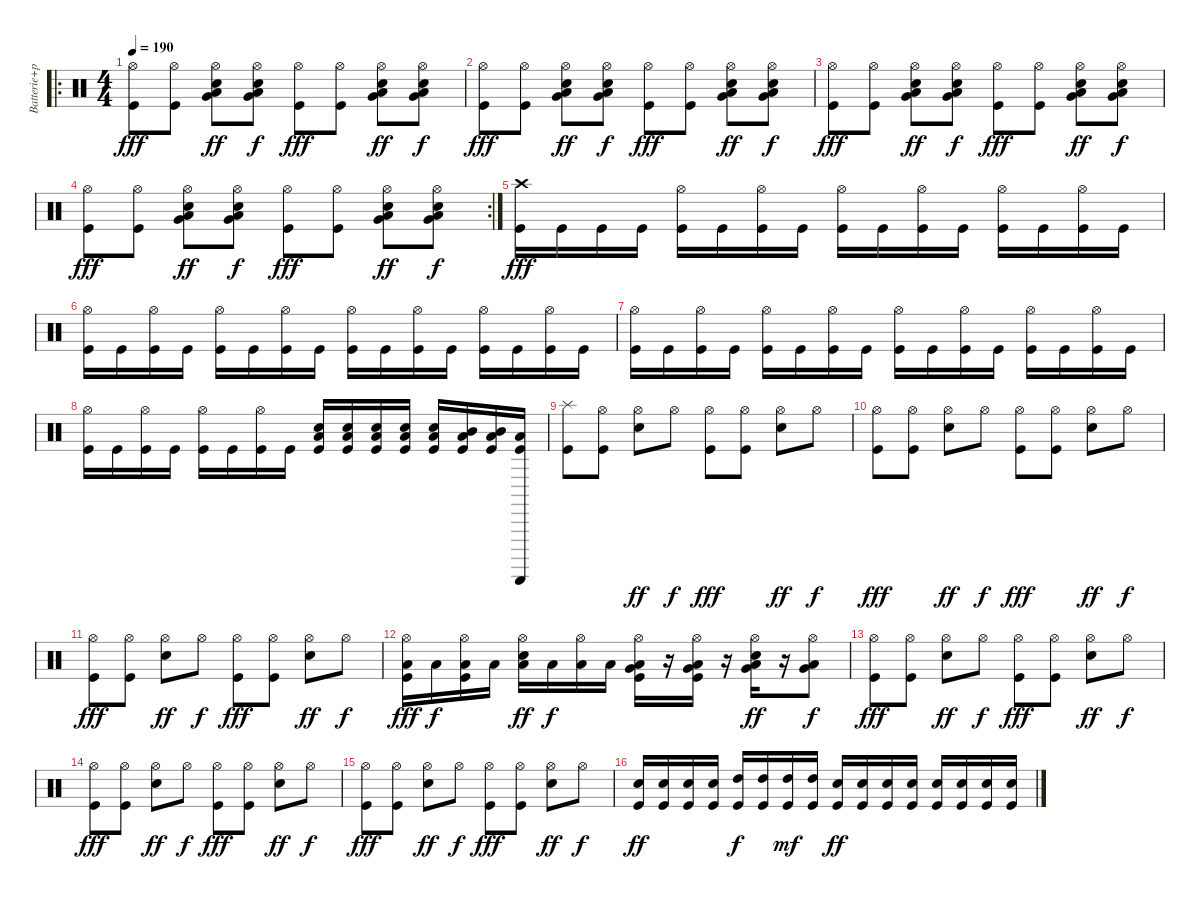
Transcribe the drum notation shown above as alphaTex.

\track ("Batterie+percussions" "Batterie+p") {instrument percussion}
\staff {score}
\articulation defaults
\ro
\ts (4 4)
\tempo 190
\clef neutral
\ks c
("Hi-Hat (open)" "Kick (hit)").8{dy fff} ("Hi-Hat (open)" "Kick (hit)").8 ("Hi-Hat (open)" "Electric Snare (hit)" "Low Floor Tom (hit)" "Very Low Tom (hit)").8{dy ff} ("Hi-Hat (open)" "Electric Snare (hit)" "Low Floor Tom (hit)" "Very Low Tom (hit)").8{dy f} ("Hi-Hat (open)" "Kick (hit)").8{dy fff} ("Hi-Hat (open)" "Kick (hit)").8 ("Hi-Hat (open)" "Electric Snare (hit)" "Low Floor Tom (hit)" "Very Low Tom (hit)").8{dy ff} ("Hi-Hat (open)" "Electric Snare (hit)" "Low Floor Tom (hit)" "Very Low Tom (hit)").8{dy f} |
("Hi-Hat (open)" "Kick (hit)").8{dy fff} ("Hi-Hat (open)" "Kick (hit)").8 ("Hi-Hat (open)" "Electric Snare (hit)" "Low Floor Tom (hit)" "Very Low Tom (hit)").8{dy ff} ("Hi-Hat (open)" "Electric Snare (hit)" "Low Floor Tom (hit)" "Very Low Tom (hit)").8{dy f} ("Hi-Hat (open)" "Kick (hit)").8{dy fff} ("Hi-Hat (open)" "Kick (hit)").8 ("Hi-Hat (open)" "Electric Snare (hit)" "Low Floor Tom (hit)" "Very Low Tom (hit)").8{dy ff} ("Hi-Hat (open)" "Electric Snare (hit)" "Low Floor Tom (hit)" "Very Low Tom (hit)").8{dy f} |
("Hi-Hat (open)" "Kick (hit)").8{dy fff} ("Hi-Hat (open)" "Kick (hit)").8 ("Hi-Hat (open)" "Electric Snare (hit)" "Low Floor Tom (hit)" "Very Low Tom (hit)").8{dy ff} ("Hi-Hat (open)" "Electric Snare (hit)" "Low Floor Tom (hit)" "Very Low Tom (hit)").8{dy f} ("Hi-Hat (open)" "Kick (hit)").8{dy fff} ("Hi-Hat (open)" "Kick (hit)").8 ("Hi-Hat (open)" "Electric Snare (hit)" "Low Floor Tom (hit)" "Very Low Tom (hit)").8{dy ff} ("Hi-Hat (open)" "Electric Snare (hit)" "Low Floor Tom (hit)" "Very Low Tom (hit)").8{dy f} |
\rc 2
("Hi-Hat (open)" "Kick (hit)").8{dy fff} ("Hi-Hat (open)" "Kick (hit)").8 ("Hi-Hat (open)" "Electric Snare (hit)" "Low Floor Tom (hit)" "Very Low Tom (hit)").8{dy ff} ("Hi-Hat (open)" "Electric Snare (hit)" "Low Floor Tom (hit)" "Very Low Tom (hit)").8{dy f} ("Hi-Hat (open)" "Kick (hit)").8{dy fff} ("Hi-Hat (open)" "Kick (hit)").8 ("Hi-Hat (open)" "Electric Snare (hit)" "Low Floor Tom (hit)" "Very Low Tom (hit)").8{dy ff} ("Hi-Hat (open)" "Electric Snare (hit)" "Low Floor Tom (hit)" "Very Low Tom (hit)").8{dy f} |
("Kick (hit)" "Crash high (hit)").16{dy fff} "Kick (hit)".16 "Kick (hit)".16 "Kick (hit)".16 ("Kick (hit)" "Hi-Hat (open)").16 "Kick (hit)".16 ("Kick (hit)" "Hi-Hat (open)").16 "Kick (hit)".16 ("Kick (hit)" "Hi-Hat (open)").16 "Kick (hit)".16 ("Kick (hit)" "Hi-Hat (open)").16 "Kick (hit)".16 ("Kick (hit)" "Hi-Hat (open)").16 "Kick (hit)".16 ("Kick (hit)" "Hi-Hat (open)").16 "Kick (hit)".16 |
("Kick (hit)" "Hi-Hat (open)").16 "Kick (hit)".16 ("Kick (hit)" "Hi-Hat (open)").16 "Kick (hit)".16 ("Kick (hit)" "Hi-Hat (open)").16 "Kick (hit)".16 ("Kick (hit)" "Hi-Hat (open)").16 "Kick (hit)".16 ("Kick (hit)" "Hi-Hat (open)").16 "Kick (hit)".16 ("Kick (hit)" "Hi-Hat (open)").16 "Kick (hit)".16 ("Kick (hit)" "Hi-Hat (open)").16 "Kick (hit)".16 ("Kick (hit)" "Hi-Hat (open)").16 "Kick (hit)".16 |
("Kick (hit)" "Hi-Hat (open)").16 "Kick (hit)".16 ("Kick (hit)" "Hi-Hat (open)").16 "Kick (hit)".16 ("Kick (hit)" "Hi-Hat (open)").16 "Kick (hit)".16 ("Kick (hit)" "Hi-Hat (open)").16 "Kick (hit)".16 ("Kick (hit)" "Hi-Hat (open)").16 "Kick (hit)".16 ("Kick (hit)" "Hi-Hat (open)").16 "Kick (hit)".16 ("Kick (hit)" "Hi-Hat (open)").16 "Kick (hit)".16 ("Kick (hit)" "Hi-Hat (open)").16 "Kick (hit)".16 |
("Kick (hit)" "Hi-Hat (open)").16 "Kick (hit)".16 ("Kick (hit)" "Hi-Hat (open)").16 "Kick (hit)".16 ("Kick (hit)" "Hi-Hat (open)").16 "Kick (hit)".16 ("Kick (hit)" "Hi-Hat (open)").16 "Kick (hit)".16 ("Kick (hit)" "Electric Snare (hit)" "Low Floor Tom (hit)").16 ("Kick (hit)" "Electric Snare (hit)" "Low Floor Tom (hit)").16 ("Kick (hit)" "Electric Snare (hit)" "Low Floor Tom (hit)").16 ("Kick (hit)" "Electric Snare (hit)" "Low Floor Tom (hit)").16 ("Kick (hit)" "Electric Snare (hit)" "Low Floor Tom (hit)").16 ("Kick (hit)" "Mid Tom (hit)" "Low Floor Tom (hit)").16 ("Kick (hit)" "Mid Tom (hit)" "Low Floor Tom (hit)").16 ("Kick (hit)" "Guiro (scrap-return)" "Low Floor Tom (hit)").16 |
("Splash (hit)" "Kick (hit)").8 ("Hi-Hat (open)" "Kick (hit)").8 ("Hi-Hat (open)" "Electric Snare (hit)").8{dy ff} "Hi-Hat (open)".8{dy f} ("Hi-Hat (open)" "Kick (hit)").8{dy fff} ("Hi-Hat (open)" "Kick (hit)").8 ("Hi-Hat (open)" "Electric Snare (hit)").8{dy ff} "Hi-Hat (open)".8{dy f} |
("Hi-Hat (open)" "Kick (hit)").8{dy fff} ("Hi-Hat (open)" "Kick (hit)").8 ("Hi-Hat (open)" "Electric Snare (hit)").8{dy ff} "Hi-Hat (open)".8{dy f} ("Hi-Hat (open)" "Kick (hit)").8{dy fff} ("Hi-Hat (open)" "Kick (hit)").8 ("Hi-Hat (open)" "Electric Snare (hit)").8{dy ff} "Hi-Hat (open)".8{dy f} |
("Hi-Hat (open)" "Kick (hit)").8{dy fff} ("Hi-Hat (open)" "Kick (hit)").8 ("Hi-Hat (open)" "Electric Snare (hit)").8{dy ff} "Hi-Hat (open)".8{dy f} ("Hi-Hat (open)" "Kick (hit)").8{dy fff} ("Hi-Hat (open)" "Kick (hit)").8 ("Hi-Hat (open)" "Electric Snare (hit)").8{dy ff} "Hi-Hat (open)".8{dy f} |
("Hi-Hat (open)" "Kick (hit)" "Low Floor Tom (hit)").16{dy fff} "Low Floor Tom (hit)".16{dy f} ("Hi-Hat (open)" "Kick (hit)" "Low Floor Tom (hit)").16 "Low Floor Tom (hit)".16 ("Hi-Hat (open)" "Electric Snare (hit)" "Low Floor Tom (hit)").16{dy ff} "Low Floor Tom (hit)".16{dy f} ("Hi-Hat (open)" "Low Floor Tom (hit)").16 "Low Floor Tom (hit)".16 ("Hi-Hat (open)" "Kick (hit)" "Low Floor Tom (hit)" "Very Low Tom (hit)").16 r.16 ("Hi-Hat (open)" "Kick (hit)" "Low Floor Tom (hit)" "Very Low Tom (hit)").16 r.16 ("Hi-Hat (open)" "Electric Snare (hit)" "Low Floor Tom (hit)" "Very Low Tom (hit)").16{dy ff} r.16 ("Hi-Hat (open)" "Low Floor Tom (hit)" "Very Low Tom (hit)").8{dy f} |
("Hi-Hat (open)" "Kick (hit)").8{dy fff} ("Hi-Hat (open)" "Kick (hit)").8 ("Hi-Hat (open)" "Electric Snare (hit)").8{dy ff} "Hi-Hat (open)".8{dy f} ("Hi-Hat (open)" "Kick (hit)").8{dy fff} ("Hi-Hat (open)" "Kick (hit)").8 ("Hi-Hat (open)" "Electric Snare (hit)").8{dy ff} "Hi-Hat (open)".8{dy f} |
("Hi-Hat (open)" "Kick (hit)").8{dy fff} ("Hi-Hat (open)" "Kick (hit)").8 ("Hi-Hat (open)" "Electric Snare (hit)").8{dy ff} "Hi-Hat (open)".8{dy f} ("Hi-Hat (open)" "Kick (hit)").8{dy fff} ("Hi-Hat (open)" "Kick (hit)").8 ("Hi-Hat (open)" "Electric Snare (hit)").8{dy ff} "Hi-Hat (open)".8{dy f} |
("Hi-Hat (open)" "Kick (hit)").8{dy fff} ("Hi-Hat (open)" "Kick (hit)").8 ("Hi-Hat (open)" "Electric Snare (hit)").8{dy ff} "Hi-Hat (open)".8{dy f} ("Hi-Hat (open)" "Kick (hit)").8{dy fff} ("Hi-Hat (open)" "Kick (hit)").8 ("Hi-Hat (open)" "Electric Snare (hit)").8{dy ff} "Hi-Hat (open)".8{dy f} |
("Kick (hit)" "Electric Snare (hit)").16{dy ff} ("Kick (hit)" "Electric Snare (hit)").16 ("Kick (hit)" "Electric Snare (hit)").16 ("Kick (hit)" "Electric Snare (hit)").16 ("Kick (hit)" "High Tom (hit)").16{dy f} ("Kick (hit)" "High Tom (hit)").16 ("Kick (hit)" "High Tom (hit)").16{dy mf} ("Kick (hit)" "High Tom (hit)").16 ("Kick (hit)" "Electric Snare (hit)").16{dy ff} ("Kick (hit)" "Electric Snare (hit)").16 ("Kick (hit)" "Electric Snare (hit)").16 ("Kick (hit)" "Electric Snare (hit)").16 ("Kick (hit)" "Electric Snare (hit)").16 ("Kick (hit)" "Electric Snare (hit)").16 ("Kick (hit)" "Electric Snare (hit)").16 ("Kick (hit)" "Electric Snare (hit)").16
